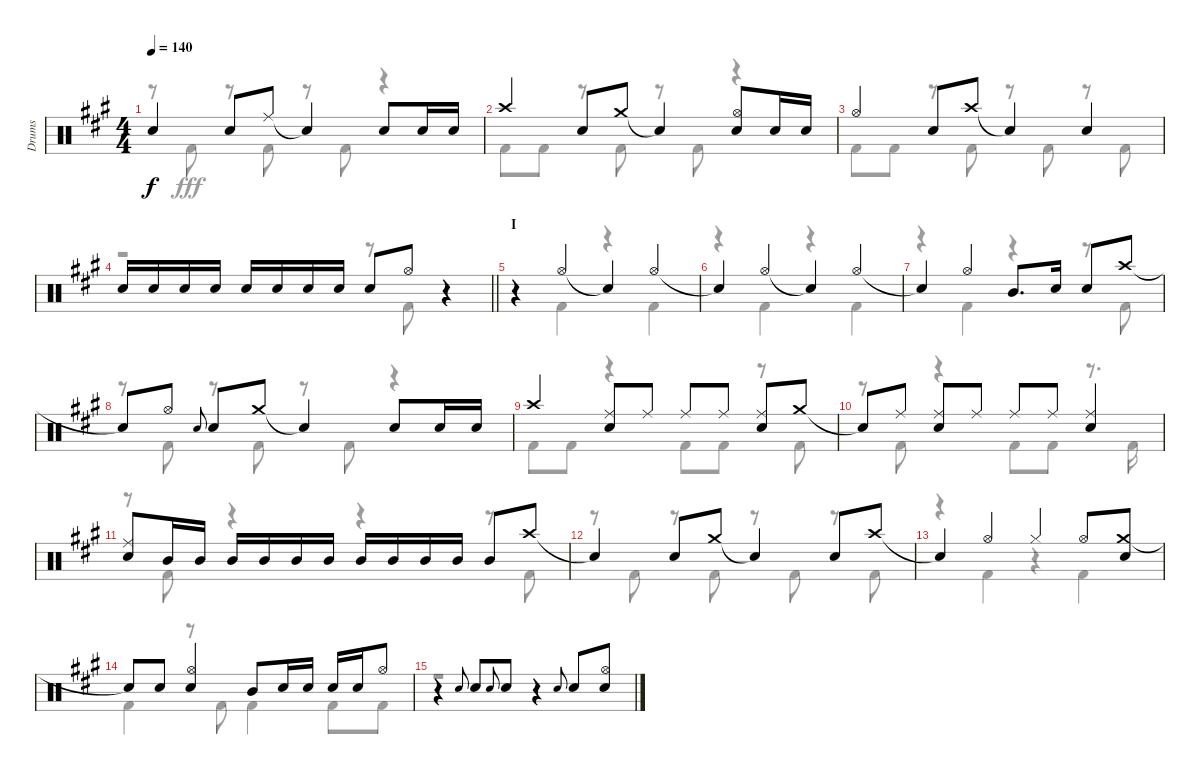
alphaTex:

\track ("Drums" "Drums") {instrument percussion}
\staff {score}
\articulation defaults
\voice
\ts (4 4)
\tempo 140
\clef neutral
\ks a "Snare (hit)"{t}.4{dy f} "Snare (hit) 2".8 "Ride (middle)".8 "Snare (hit)"{t}.4 "Snare (hit) 2".8 "Snare (hit) 2".16 "Snare (hit) 2".16
|
"Crash high (hit)".4 "Snare (hit) 2".8 "Crash medium (hit)".8 "Snare (hit)"{t}.4 ("Hi-Hat (open)" "Snare (hit) 2").8 "Snare (hit) 2".16 "Snare (hit) 2".16 |
"Hi-Hat (open)".4 "Snare (hit) 2".8 "Crash high (hit)".8 "Snare (hit)"{t}.4 "Snare (hit) 2".4 |
\barLineRight lightlight "Snare (hit) 2".16 "Snare (hit) 2".16 "Snare (hit) 2".16 "Snare (hit) 2".16 "Snare (hit) 2".16 "Snare (hit) 2".16 "Snare (hit) 2".16 "Snare (hit) 2".16 "Snare (hit) 2".8 "Hi-Hat (open)".8
r.4 |
\section ("" "I")
r.4 "Hi-Hat (open)".4 "Snare (hit)"{t}.4 "Hi-Hat (open)".4 |
"Snare (hit)"{t}.4 "Hi-Hat (open)".4 "Snare (hit)"{t}.4 "Hi-Hat (open)".4 |
"Snare (hit)"{t}.4 "Hi-Hat (open)".4 "Mid Tom (hit)".8{d} "Snare (hit) 2".16 "Snare (hit) 2".8 "Crash high (hit)".8 |
"Snare (hit)"{t}.8 "Hi-Hat (open)".8 "Snare (hit) 2".8{gr onbeat} "Snare (hit) 2".8 "Crash medium (hit)".8 "Snare (hit)"{t}.4 "Snare (hit) 2".8 "Snare (hit) 2".16 "Snare (hit) 2".16 |
"Crash high (hit)".4 ("Ride (middle)" "Snare (hit) 2").8 "Ride (middle)".8 "Ride (middle)".8 "Ride (middle)".8 ("Ride (middle)" "Snare (hit) 2").8 "Crash medium (hit)".8 |
"Snare (hit)"{t}.8 "Ride (middle)".8 ("Ride (middle)" "Snare (hit) 2").8 "Ride (middle)".8 "Ride (middle)".8 "Ride (middle)".8 ("Ride (middle)" "Snare (hit) 2").4 |
("Ride (middle)" "Snare (hit) 2").8 "Mid Tom (hit)".16 "Mid Tom (hit)".16 "Mid Tom (hit)".16 "Mid Tom (hit)".16 "Mid Tom (hit)".16 "Mid Tom (hit)".16 "Mid Tom (hit)".16 "Mid Tom (hit)".16 "Mid Tom (hit)".16 "Mid Tom (hit)".16 "Mid Tom (hit)".8 "Crash high (hit)".8 |
"Snare (hit)"{t}.4 "Snare (hit) 2".8 "Crash medium (hit)".8 "Snare (hit)"{t}.4 "Snare (hit) 2".8 "Crash high (hit)".8 |
"Snare (hit)"{t}.4 "Hi-Hat (open)".4 "Hi-Hat (closed)".4 "Hi-Hat (open)".8 ("Crash medium (hit)" "Snare (hit) 2").8 |
"Snare (hit)"{t}.8 "Snare (hit) 2".8 ("Hi-Hat (open)" "Snare (hit) 2").4 "Mid Tom (hit)".8 "Snare (hit) 2".16 "Snare (hit) 2".16 "Snare (hit) 2".16 "Snare (hit) 2".16 "Hi-Hat (open)".8 |
r.4 "Snare (hit) 2".8{gr onbeat} "Snare (hit) 2".8 "Snare (hit) 2".8{gr onbeat} "Snare (hit) 2".8 r.4 "Snare (hit) 2".8{gr onbeat} "Snare (hit) 2".8 ("Hi-Hat (open)" "Snare (hit) 2").8
\voice
\clef neutral
\ottava regular
\simile none
\ks a
r.8{dy fff} "Kick (hit) 2".8 r.8 "Kick (hit) 2".8 r.8 "Kick (hit) 2".8 r.4 |
"Kick (hit) 2".8 "Kick (hit) 2".8 r.8 "Kick (hit) 2".8 r.8 "Kick (hit) 2".8 r.4 |
"Kick (hit) 2".8 "Kick (hit) 2".8 r.8 "Kick (hit) 2".8 r.8 "Kick (hit) 2".8 r.8 "Kick (hit) 2".8 |
\barLineRight lightlight
r.2 r.8 "Kick (hit) 2".8 r.4 |
r.4 "Kick (hit) 2".4 r.4 "Kick (hit) 2".4 |
r.4 "Kick (hit) 2".4 r.4 "Kick (hit) 2".4 |
r.4 "Kick (hit) 2".4 r.4 r.8 "Kick (hit) 2".8 |
r.8 "Kick (hit) 2".8 r.8 "Kick (hit) 2".8 r.8 "Kick (hit) 2".8 r.4 |
"Kick (hit) 2".8 "Kick (hit) 2".8 r.4 "Kick (hit) 2".8 "Kick (hit) 2".8 r.8 "Kick (hit) 2".8 |
r.8 "Kick (hit) 2".8 r.4 "Kick (hit) 2".8 "Kick (hit) 2".8 r.8{d} "Kick (hit) 2".16 |
r.8 "Kick (hit) 2".8 r.4 r.4 r.8 "Kick (hit) 2".8 |
r.8 "Kick (hit) 2".8 r.8 "Kick (hit) 2".8 r.8 "Kick (hit) 2".8 r.8 "Kick (hit) 2".8 |
r.4 "Kick (hit) 2".4 r.4 "Kick (hit) 2".4 |
"Kick (hit) 2".4 r.8 "Kick (hit) 2".8 "Kick (hit) 2".4 "Kick (hit) 2".8 "Kick (hit) 2".8 |
r.1
